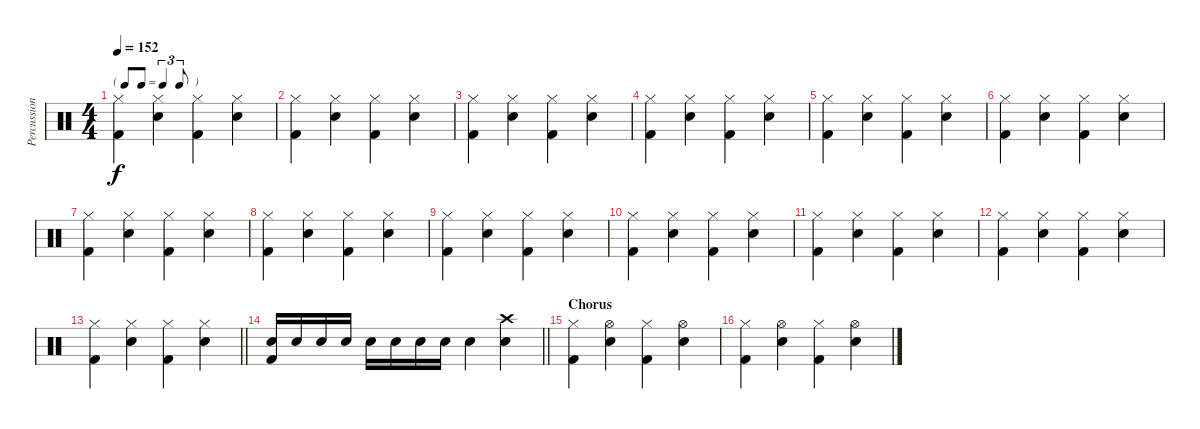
\track ("Percussion" "Percussion") {instrument percussion}
\staff {score}
\articulation defaults
\ts (4 4)
\tf triplet8th
\tempo 152
\clef neutral
\ks c
("Hi-Hat (closed)" "Kick (hit) 2").4{dy f} ("Hi-Hat (closed)" "Snare (hit) 2").4 ("Hi-Hat (closed)" "Kick (hit) 2").4 ("Hi-Hat (closed)" "Snare (hit) 2").4 |
("Hi-Hat (closed)" "Kick (hit) 2").4 ("Hi-Hat (closed)" "Snare (hit) 2").4 ("Hi-Hat (closed)" "Kick (hit) 2").4 ("Hi-Hat (closed)" "Snare (hit) 2").4 |
("Hi-Hat (closed)" "Kick (hit) 2").4 ("Hi-Hat (closed)" "Snare (hit) 2").4 ("Hi-Hat (closed)" "Kick (hit) 2").4 ("Hi-Hat (closed)" "Snare (hit) 2").4 |
("Hi-Hat (closed)" "Kick (hit) 2").4 ("Hi-Hat (closed)" "Snare (hit) 2").4 ("Hi-Hat (closed)" "Kick (hit) 2").4 ("Hi-Hat (closed)" "Snare (hit) 2").4 |
("Hi-Hat (closed)" "Kick (hit) 2").4 ("Hi-Hat (closed)" "Snare (hit) 2").4 ("Hi-Hat (closed)" "Kick (hit) 2").4 ("Hi-Hat (closed)" "Snare (hit) 2").4 |
("Hi-Hat (closed)" "Kick (hit) 2").4 ("Hi-Hat (closed)" "Snare (hit) 2").4 ("Hi-Hat (closed)" "Kick (hit) 2").4 ("Hi-Hat (closed)" "Snare (hit) 2").4 |
("Hi-Hat (closed)" "Kick (hit) 2").4 ("Hi-Hat (closed)" "Snare (hit) 2").4 ("Hi-Hat (closed)" "Kick (hit) 2").4 ("Hi-Hat (closed)" "Snare (hit) 2").4 |
("Hi-Hat (closed)" "Kick (hit) 2").4 ("Hi-Hat (closed)" "Snare (hit) 2").4 ("Hi-Hat (closed)" "Kick (hit) 2").4 ("Hi-Hat (closed)" "Snare (hit) 2").4 |
("Hi-Hat (closed)" "Kick (hit) 2").4 ("Hi-Hat (closed)" "Snare (hit) 2").4 ("Hi-Hat (closed)" "Kick (hit) 2").4 ("Hi-Hat (closed)" "Snare (hit) 2").4 |
("Hi-Hat (closed)" "Kick (hit) 2").4 ("Hi-Hat (closed)" "Snare (hit) 2").4 ("Hi-Hat (closed)" "Kick (hit) 2").4 ("Hi-Hat (closed)" "Snare (hit) 2").4 |
("Hi-Hat (closed)" "Kick (hit) 2").4 ("Hi-Hat (closed)" "Snare (hit) 2").4 ("Hi-Hat (closed)" "Kick (hit) 2").4 ("Hi-Hat (closed)" "Snare (hit) 2").4 |
("Hi-Hat (closed)" "Kick (hit) 2").4 ("Hi-Hat (closed)" "Snare (hit) 2").4 ("Hi-Hat (closed)" "Kick (hit) 2").4 ("Hi-Hat (closed)" "Snare (hit) 2").4 |
\barLineRight lightlight
("Hi-Hat (closed)" "Kick (hit) 2").4 ("Hi-Hat (closed)" "Snare (hit) 2").4 ("Hi-Hat (closed)" "Kick (hit) 2").4 ("Hi-Hat (closed)" "Snare (hit) 2").4 |
\barLineRight lightlight
("Snare (hit) 2" "Kick (hit) 2").16 "Snare (hit) 2".16 "Snare (hit) 2".16 "Snare (hit) 2".16 "Snare (hit) 2".16 "Snare (hit) 2".16 "Snare (hit) 2".16 "Snare (hit) 2".16 "Snare (hit) 2".4 ("Crash high (hit)" "Snare (hit) 2").4 |
\section ("" "Chorus")
("Hi-Hat (closed)" "Kick (hit) 2").4 ("Hi-Hat (open)" "Snare (hit) 2").4 ("Hi-Hat (closed)" "Kick (hit) 2").4 ("Hi-Hat (open)" "Snare (hit) 2").4 |
("Hi-Hat (closed)" "Kick (hit) 2").4 ("Hi-Hat (open)" "Snare (hit) 2").4 ("Hi-Hat (closed)" "Kick (hit) 2").4 ("Hi-Hat (open)" "Snare (hit) 2").4
